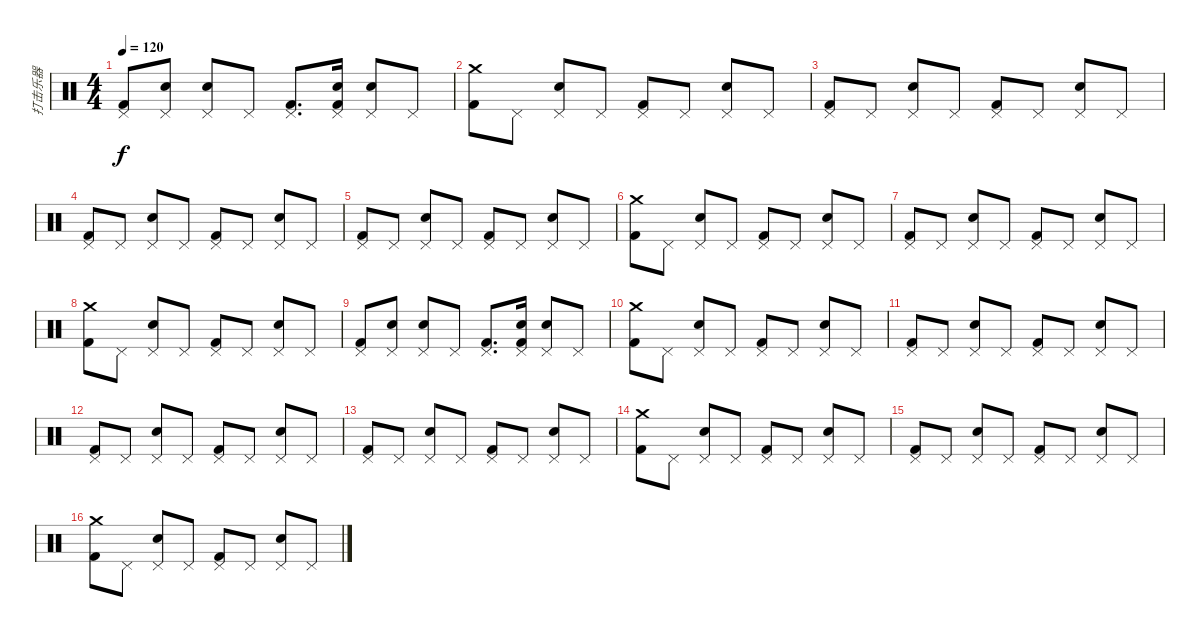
\track ("打击乐器" "打击乐器") {instrument percussion}
\staff {score}
\articulation defaults
\ts (4 4)
\tempo 120
\clef neutral
\ks c
("Pedal Hi-Hat (hit)" "Kick (hit) 2").8{dy f} ("Pedal Hi-Hat (hit)" "Electric Snare (hit)").8 ("Pedal Hi-Hat (hit)" "Electric Snare (hit)").8 "Pedal Hi-Hat (hit)".8 ("Pedal Hi-Hat (hit)" "Kick (hit) 2").8{d} ("Pedal Hi-Hat (hit)" "Electric Snare (hit)" "Kick (hit) 2").16 ("Pedal Hi-Hat (hit)" "Electric Snare (hit)").8 "Pedal Hi-Hat (hit)".8 |
("Crash medium (hit)" "Kick (hit) 2").8 "Pedal Hi-Hat (hit)".8 ("Pedal Hi-Hat (hit)" "Electric Snare (hit)").8 "Pedal Hi-Hat (hit)".8 ("Pedal Hi-Hat (hit)" "Kick (hit) 2").8 "Pedal Hi-Hat (hit)".8 ("Pedal Hi-Hat (hit)" "Electric Snare (hit)").8 "Pedal Hi-Hat (hit)".8 |
("Pedal Hi-Hat (hit)" "Kick (hit) 2").8 "Pedal Hi-Hat (hit)".8 ("Pedal Hi-Hat (hit)" "Electric Snare (hit)").8 "Pedal Hi-Hat (hit)".8 ("Pedal Hi-Hat (hit)" "Kick (hit) 2").8 "Pedal Hi-Hat (hit)".8 ("Pedal Hi-Hat (hit)" "Electric Snare (hit)").8 "Pedal Hi-Hat (hit)".8 |
("Pedal Hi-Hat (hit)" "Kick (hit) 2").8 "Pedal Hi-Hat (hit)".8 ("Pedal Hi-Hat (hit)" "Electric Snare (hit)").8 "Pedal Hi-Hat (hit)".8 ("Pedal Hi-Hat (hit)" "Kick (hit) 2").8 "Pedal Hi-Hat (hit)".8 ("Pedal Hi-Hat (hit)" "Electric Snare (hit)").8 "Pedal Hi-Hat (hit)".8 |
("Pedal Hi-Hat (hit)" "Kick (hit) 2").8 "Pedal Hi-Hat (hit)".8 ("Pedal Hi-Hat (hit)" "Electric Snare (hit)").8 "Pedal Hi-Hat (hit)".8 ("Pedal Hi-Hat (hit)" "Kick (hit) 2").8 "Pedal Hi-Hat (hit)".8 ("Pedal Hi-Hat (hit)" "Electric Snare (hit)").8 "Pedal Hi-Hat (hit)".8 |
("Crash medium (hit)" "Kick (hit) 2").8 "Pedal Hi-Hat (hit)".8 ("Pedal Hi-Hat (hit)" "Electric Snare (hit)").8 "Pedal Hi-Hat (hit)".8 ("Pedal Hi-Hat (hit)" "Kick (hit) 2").8 "Pedal Hi-Hat (hit)".8 ("Pedal Hi-Hat (hit)" "Electric Snare (hit)").8 "Pedal Hi-Hat (hit)".8 |
("Pedal Hi-Hat (hit)" "Kick (hit) 2").8 "Pedal Hi-Hat (hit)".8 ("Pedal Hi-Hat (hit)" "Electric Snare (hit)").8 "Pedal Hi-Hat (hit)".8 ("Pedal Hi-Hat (hit)" "Kick (hit) 2").8 "Pedal Hi-Hat (hit)".8 ("Pedal Hi-Hat (hit)" "Electric Snare (hit)").8 "Pedal Hi-Hat (hit)".8 |
("Crash medium (hit)" "Kick (hit) 2").8 "Pedal Hi-Hat (hit)".8 ("Pedal Hi-Hat (hit)" "Electric Snare (hit)").8 "Pedal Hi-Hat (hit)".8 ("Pedal Hi-Hat (hit)" "Kick (hit) 2").8 "Pedal Hi-Hat (hit)".8 ("Pedal Hi-Hat (hit)" "Electric Snare (hit)").8 "Pedal Hi-Hat (hit)".8 |
("Pedal Hi-Hat (hit)" "Kick (hit) 2").8 ("Pedal Hi-Hat (hit)" "Electric Snare (hit)").8 ("Pedal Hi-Hat (hit)" "Electric Snare (hit)").8 "Pedal Hi-Hat (hit)".8 ("Pedal Hi-Hat (hit)" "Kick (hit) 2").8{d} ("Pedal Hi-Hat (hit)" "Electric Snare (hit)" "Kick (hit) 2").16 ("Pedal Hi-Hat (hit)" "Electric Snare (hit)").8 "Pedal Hi-Hat (hit)".8 |
("Crash medium (hit)" "Kick (hit) 2").8 "Pedal Hi-Hat (hit)".8 ("Pedal Hi-Hat (hit)" "Electric Snare (hit)").8 "Pedal Hi-Hat (hit)".8 ("Pedal Hi-Hat (hit)" "Kick (hit) 2").8 "Pedal Hi-Hat (hit)".8 ("Pedal Hi-Hat (hit)" "Electric Snare (hit)").8 "Pedal Hi-Hat (hit)".8 |
("Pedal Hi-Hat (hit)" "Kick (hit) 2").8 "Pedal Hi-Hat (hit)".8 ("Pedal Hi-Hat (hit)" "Electric Snare (hit)").8 "Pedal Hi-Hat (hit)".8 ("Pedal Hi-Hat (hit)" "Kick (hit) 2").8 "Pedal Hi-Hat (hit)".8 ("Pedal Hi-Hat (hit)" "Electric Snare (hit)").8 "Pedal Hi-Hat (hit)".8 |
("Pedal Hi-Hat (hit)" "Kick (hit) 2").8 "Pedal Hi-Hat (hit)".8 ("Pedal Hi-Hat (hit)" "Electric Snare (hit)").8 "Pedal Hi-Hat (hit)".8 ("Pedal Hi-Hat (hit)" "Kick (hit) 2").8 "Pedal Hi-Hat (hit)".8 ("Pedal Hi-Hat (hit)" "Electric Snare (hit)").8 "Pedal Hi-Hat (hit)".8 |
("Pedal Hi-Hat (hit)" "Kick (hit) 2").8 "Pedal Hi-Hat (hit)".8 ("Pedal Hi-Hat (hit)" "Electric Snare (hit)").8 "Pedal Hi-Hat (hit)".8 ("Pedal Hi-Hat (hit)" "Kick (hit) 2").8 "Pedal Hi-Hat (hit)".8 ("Pedal Hi-Hat (hit)" "Electric Snare (hit)").8 "Pedal Hi-Hat (hit)".8 |
("Crash medium (hit)" "Kick (hit) 2").8 "Pedal Hi-Hat (hit)".8 ("Pedal Hi-Hat (hit)" "Electric Snare (hit)").8 "Pedal Hi-Hat (hit)".8 ("Pedal Hi-Hat (hit)" "Kick (hit) 2").8 "Pedal Hi-Hat (hit)".8 ("Pedal Hi-Hat (hit)" "Electric Snare (hit)").8 "Pedal Hi-Hat (hit)".8 |
("Pedal Hi-Hat (hit)" "Kick (hit) 2").8 "Pedal Hi-Hat (hit)".8 ("Pedal Hi-Hat (hit)" "Electric Snare (hit)").8 "Pedal Hi-Hat (hit)".8 ("Pedal Hi-Hat (hit)" "Kick (hit) 2").8 "Pedal Hi-Hat (hit)".8 ("Pedal Hi-Hat (hit)" "Electric Snare (hit)").8 "Pedal Hi-Hat (hit)".8 |
("Crash medium (hit)" "Kick (hit) 2").8 "Pedal Hi-Hat (hit)".8 ("Pedal Hi-Hat (hit)" "Electric Snare (hit)").8 "Pedal Hi-Hat (hit)".8 ("Pedal Hi-Hat (hit)" "Kick (hit) 2").8 "Pedal Hi-Hat (hit)".8 ("Pedal Hi-Hat (hit)" "Electric Snare (hit)").8 "Pedal Hi-Hat (hit)".8
